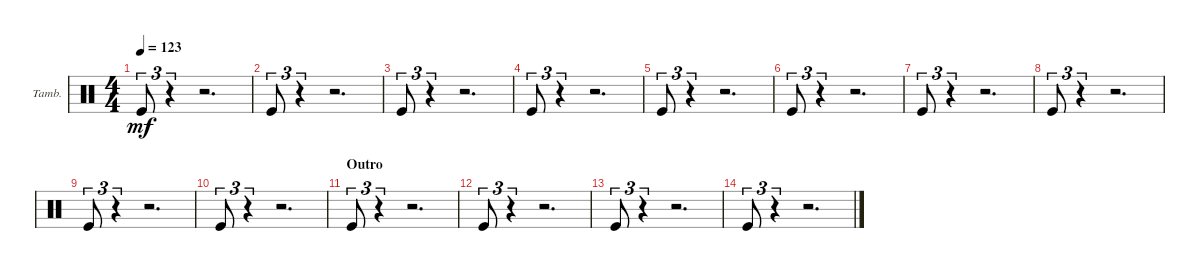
\defaultSystemsLayout 4
\bracketExtendMode groupsimilarinstruments
\firstSystemTrackNameOrientation horizontal
\otherSystemsTrackNameOrientation horizontal
\track ("Tambourine" "Tamb.") {multiBarRest instrument percussion}
\staff {score}
\articulation defaults
\ts (4 4)
\tempo 123
\clef neutral
\ks c "Kick (hit)".8{tu (3 2) dy mf}
r.4{tu (3 2)} r.2{d} |
"Kick (hit)".8{tu (3 2)} r.4{tu (3 2)} r.2{d} |
"Kick (hit)".8{tu (3 2)} r.4{tu (3 2)} r.2{d} |
"Kick (hit)".8{tu (3 2)} r.4{tu (3 2)} r.2{d} |
"Kick (hit)".8{tu (3 2)} r.4{tu (3 2)} r.2{d} |
"Kick (hit)".8{tu (3 2)} r.4{tu (3 2)} r.2{d} |
"Kick (hit)".8{tu (3 2)} r.4{tu (3 2)} r.2{d} |
"Kick (hit)".8{tu (3 2)} r.4{tu (3 2)} r.2{d} |
"Kick (hit)".8{tu (3 2)} r.4{tu (3 2)} r.2{d} |
"Kick (hit)".8{tu (3 2)} r.4{tu (3 2)} r.2{d} |
\section ("" "Outro")
"Kick (hit)".8{tu (3 2)} r.4{tu (3 2)} r.2{d} |
"Kick (hit)".8{tu (3 2)} r.4{tu (3 2)} r.2{d} |
"Kick (hit)".8{tu (3 2)} r.4{tu (3 2)} r.2{d} |
"Kick (hit)".8{tu (3 2)} r.4{tu (3 2)} r.2{d}
